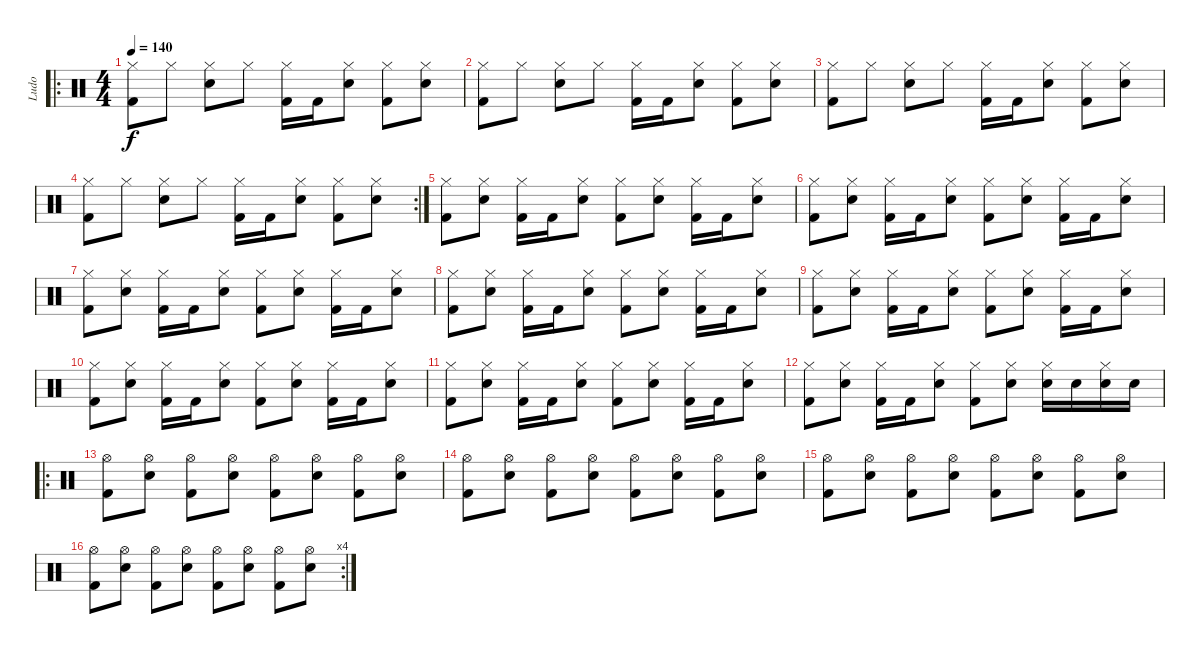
\track ("Ludo" "Ludo") {instrument percussion}
\staff {score}
\articulation defaults
\ro
\ts (4 4)
\tempo 140
\clef neutral
\ks c
("Hi-Hat (closed)" "Kick (hit) 2").8{dy f} "Hi-Hat (closed)".8 ("Hi-Hat (closed)" "Electric Snare (hit)").8 "Hi-Hat (closed)".8 ("Hi-Hat (closed)" "Kick (hit) 2").16 "Kick (hit) 2".16 ("Hi-Hat (closed)" "Electric Snare (hit)").8 ("Hi-Hat (closed)" "Kick (hit) 2").8 ("Hi-Hat (closed)" "Electric Snare (hit)").8 |
("Hi-Hat (closed)" "Kick (hit) 2").8 "Hi-Hat (closed)".8 ("Hi-Hat (closed)" "Electric Snare (hit)").8 "Hi-Hat (closed)".8 ("Hi-Hat (closed)" "Kick (hit) 2").16 "Kick (hit) 2".16 ("Hi-Hat (closed)" "Electric Snare (hit)").8 ("Hi-Hat (closed)" "Kick (hit) 2").8 ("Hi-Hat (closed)" "Electric Snare (hit)").8 |
("Hi-Hat (closed)" "Kick (hit) 2").8 "Hi-Hat (closed)".8 ("Hi-Hat (closed)" "Electric Snare (hit)").8 "Hi-Hat (closed)".8 ("Hi-Hat (closed)" "Kick (hit) 2").16 "Kick (hit) 2".16 ("Hi-Hat (closed)" "Electric Snare (hit)").8 ("Hi-Hat (closed)" "Kick (hit) 2").8 ("Hi-Hat (closed)" "Electric Snare (hit)").8 |
\rc 2
("Hi-Hat (closed)" "Kick (hit) 2").8 "Hi-Hat (closed)".8 ("Hi-Hat (closed)" "Electric Snare (hit)").8 "Hi-Hat (closed)".8 ("Hi-Hat (closed)" "Kick (hit) 2").16 "Kick (hit) 2".16 ("Hi-Hat (closed)" "Electric Snare (hit)").8 ("Hi-Hat (closed)" "Kick (hit) 2").8 ("Hi-Hat (closed)" "Electric Snare (hit)").8 |
("Hi-Hat (closed)" "Kick (hit) 2").8 ("Hi-Hat (closed)" "Electric Snare (hit)").8 ("Hi-Hat (closed)" "Kick (hit) 2").16 "Kick (hit) 2".16 ("Hi-Hat (closed)" "Electric Snare (hit)").8 ("Hi-Hat (closed)" "Kick (hit) 2").8 ("Hi-Hat (closed)" "Electric Snare (hit)").8 ("Hi-Hat (closed)" "Kick (hit) 2").16 "Kick (hit) 2".16 ("Hi-Hat (closed)" "Electric Snare (hit)").8 |
("Hi-Hat (closed)" "Kick (hit) 2").8 ("Hi-Hat (closed)" "Electric Snare (hit)").8 ("Hi-Hat (closed)" "Kick (hit) 2").16 "Kick (hit) 2".16 ("Hi-Hat (closed)" "Electric Snare (hit)").8 ("Hi-Hat (closed)" "Kick (hit) 2").8 ("Hi-Hat (closed)" "Electric Snare (hit)").8 ("Hi-Hat (closed)" "Kick (hit) 2").16 "Kick (hit) 2".16 ("Hi-Hat (closed)" "Electric Snare (hit)").8 |
("Hi-Hat (closed)" "Kick (hit) 2").8 ("Hi-Hat (closed)" "Electric Snare (hit)").8 ("Hi-Hat (closed)" "Kick (hit) 2").16 "Kick (hit) 2".16 ("Hi-Hat (closed)" "Electric Snare (hit)").8 ("Hi-Hat (closed)" "Kick (hit) 2").8 ("Hi-Hat (closed)" "Electric Snare (hit)").8 ("Hi-Hat (closed)" "Kick (hit) 2").16 "Kick (hit) 2".16 ("Hi-Hat (closed)" "Electric Snare (hit)").8 |
("Hi-Hat (closed)" "Kick (hit) 2").8 ("Hi-Hat (closed)" "Electric Snare (hit)").8 ("Hi-Hat (closed)" "Kick (hit) 2").16 "Kick (hit) 2".16 ("Hi-Hat (closed)" "Electric Snare (hit)").8 ("Hi-Hat (closed)" "Kick (hit) 2").8 ("Hi-Hat (closed)" "Electric Snare (hit)").8 ("Hi-Hat (closed)" "Kick (hit) 2").16 "Kick (hit) 2".16 ("Hi-Hat (closed)" "Electric Snare (hit)").8 |
("Hi-Hat (closed)" "Kick (hit) 2").8 ("Hi-Hat (closed)" "Electric Snare (hit)").8 ("Hi-Hat (closed)" "Kick (hit) 2").16 "Kick (hit) 2".16 ("Hi-Hat (closed)" "Electric Snare (hit)").8 ("Hi-Hat (closed)" "Kick (hit) 2").8 ("Hi-Hat (closed)" "Electric Snare (hit)").8 ("Hi-Hat (closed)" "Kick (hit) 2").16 "Kick (hit) 2".16 ("Hi-Hat (closed)" "Electric Snare (hit)").8 |
("Hi-Hat (closed)" "Kick (hit) 2").8 ("Hi-Hat (closed)" "Electric Snare (hit)").8 ("Hi-Hat (closed)" "Kick (hit) 2").16 "Kick (hit) 2".16 ("Hi-Hat (closed)" "Electric Snare (hit)").8 ("Hi-Hat (closed)" "Kick (hit) 2").8 ("Hi-Hat (closed)" "Electric Snare (hit)").8 ("Hi-Hat (closed)" "Kick (hit) 2").16 "Kick (hit) 2".16 ("Hi-Hat (closed)" "Electric Snare (hit)").8 |
("Hi-Hat (closed)" "Kick (hit) 2").8 ("Hi-Hat (closed)" "Electric Snare (hit)").8 ("Hi-Hat (closed)" "Kick (hit) 2").16 "Kick (hit) 2".16 ("Hi-Hat (closed)" "Electric Snare (hit)").8 ("Hi-Hat (closed)" "Kick (hit) 2").8 ("Hi-Hat (closed)" "Electric Snare (hit)").8 ("Hi-Hat (closed)" "Kick (hit) 2").16 "Kick (hit) 2".16 ("Hi-Hat (closed)" "Electric Snare (hit)").8 |
("Hi-Hat (closed)" "Kick (hit) 2").8 ("Hi-Hat (closed)" "Electric Snare (hit)").8 ("Hi-Hat (closed)" "Kick (hit) 2").16 "Kick (hit) 2".16 ("Hi-Hat (closed)" "Electric Snare (hit)").8 ("Hi-Hat (closed)" "Kick (hit) 2").8 ("Hi-Hat (closed)" "Electric Snare (hit)").8 ("Hi-Hat (closed)" "Electric Snare (hit)").16 "Electric Snare (hit)".16 ("Hi-Hat (closed)" "Electric Snare (hit)").16 "Electric Snare (hit)".16 |
\ro
("Hi-Hat (open)" "Kick (hit) 2").8 ("Hi-Hat (open)" "Electric Snare (hit)").8 ("Hi-Hat (open)" "Kick (hit) 2").8 ("Hi-Hat (open)" "Electric Snare (hit)").8 ("Hi-Hat (open)" "Kick (hit) 2").8 ("Hi-Hat (open)" "Electric Snare (hit)").8 ("Hi-Hat (open)" "Kick (hit) 2").8 ("Hi-Hat (open)" "Electric Snare (hit)").8 |
("Hi-Hat (open)" "Kick (hit) 2").8 ("Hi-Hat (open)" "Electric Snare (hit)").8 ("Hi-Hat (open)" "Kick (hit) 2").8 ("Hi-Hat (open)" "Electric Snare (hit)").8 ("Hi-Hat (open)" "Kick (hit) 2").8 ("Hi-Hat (open)" "Electric Snare (hit)").8 ("Hi-Hat (open)" "Kick (hit) 2").8 ("Hi-Hat (open)" "Electric Snare (hit)").8 |
("Hi-Hat (open)" "Kick (hit) 2").8 ("Hi-Hat (open)" "Electric Snare (hit)").8 ("Hi-Hat (open)" "Kick (hit) 2").8 ("Hi-Hat (open)" "Electric Snare (hit)").8 ("Hi-Hat (open)" "Kick (hit) 2").8 ("Hi-Hat (open)" "Electric Snare (hit)").8 ("Hi-Hat (open)" "Kick (hit) 2").8 ("Hi-Hat (open)" "Electric Snare (hit)").8 |
\rc 4
("Hi-Hat (open)" "Kick (hit) 2").8 ("Hi-Hat (open)" "Electric Snare (hit)").8 ("Hi-Hat (open)" "Kick (hit) 2").8 ("Hi-Hat (open)" "Electric Snare (hit)").8 ("Hi-Hat (open)" "Kick (hit) 2").8 ("Hi-Hat (open)" "Electric Snare (hit)").8 ("Hi-Hat (open)" "Kick (hit) 2").8 ("Hi-Hat (open)" "Electric Snare (hit)").8
